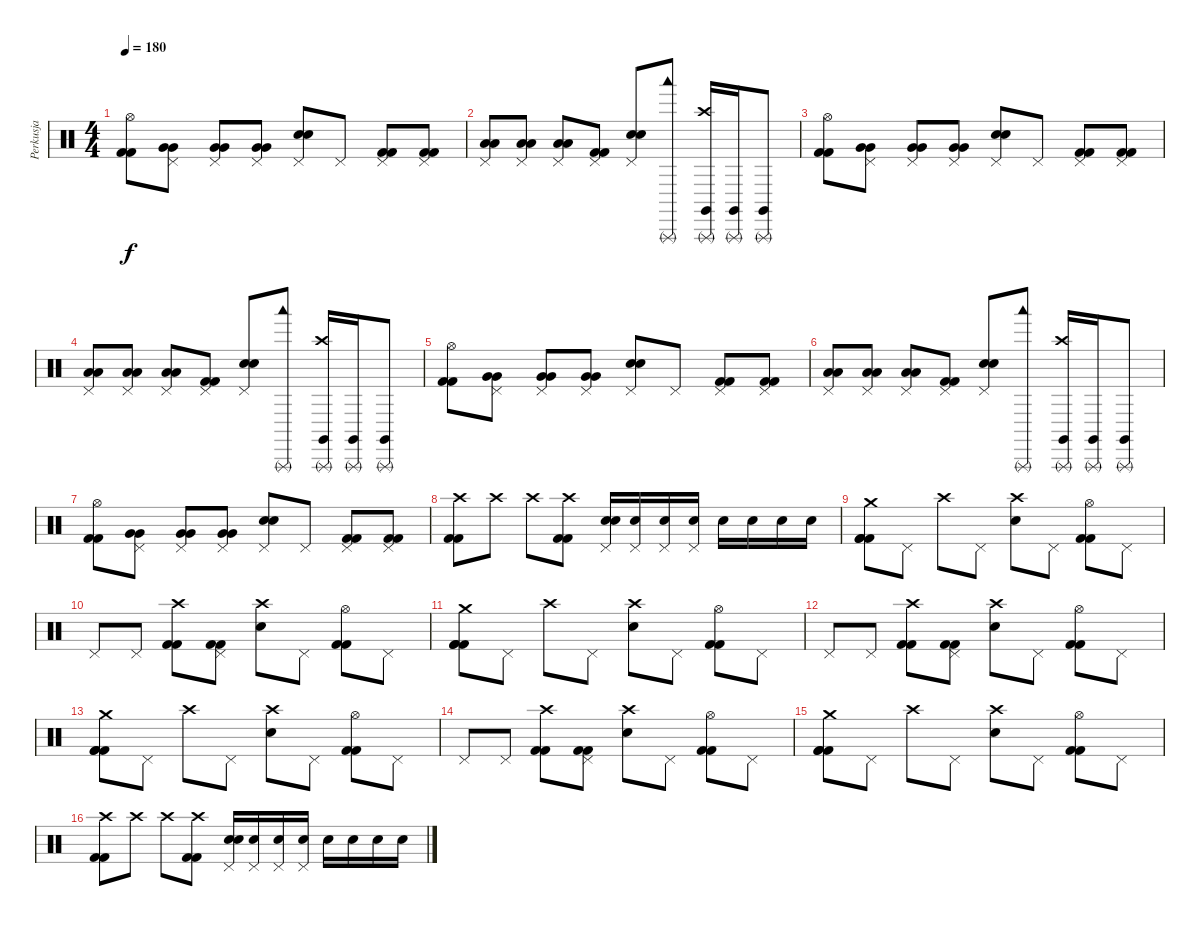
\track ("Perkusja" "Perkusja") {instrument percussion}
\staff {score}
\articulation defaults
\ts (4 4)
\tempo 180
\clef neutral
\ks c
("Hi-Hat (open)" "Kick (hit) 2" "Kick (hit) 2").8{dy f} ("Pedal Hi-Hat (hit)" "Very Low Tom (hit)" "Very Low Tom (hit)").8 ("Pedal Hi-Hat (hit)" "Very Low Tom (hit)" "Very Low Tom (hit)").8 ("Pedal Hi-Hat (hit)" "Very Low Tom (hit)" "Very Low Tom (hit)").8 ("Pedal Hi-Hat (hit)" "Snare (hit) 2" "Snare (hit) 2").8 "Pedal Hi-Hat (hit)".8 ("Pedal Hi-Hat (hit)" "Kick (hit) 2" "Kick (hit) 2").8 ("Pedal Hi-Hat (hit)" "Kick (hit) 2" "Kick (hit) 2").8 |
("Pedal Hi-Hat (hit)" "Low Tom (hit)" "Low Tom (hit)").8 ("Pedal Hi-Hat (hit)" "Low Tom (hit)" "Low Tom (hit)").8 ("Pedal Hi-Hat (hit)" "Low Tom (hit)" "Low Tom (hit)").8 ("Pedal Hi-Hat (hit)" "Kick (hit) 2" "Kick (hit) 2").8 ("Pedal Hi-Hat (hit)" "Snare (hit) 2" "Snare (hit) 2").8 ("Triangle (rnute)" "Woodblock low (hit)").8 ("Crash high (hit)" "Triangle (rnute)" "Claves (hit)").16 ("Triangle (rnute)" "Claves (hit)").16 ("Triangle (rnute)" "Claves (hit)").8 |
("Hi-Hat (open)" "Kick (hit) 2" "Kick (hit) 2").8 ("Pedal Hi-Hat (hit)" "Very Low Tom (hit)" "Very Low Tom (hit)").8 ("Pedal Hi-Hat (hit)" "Very Low Tom (hit)" "Very Low Tom (hit)").8 ("Pedal Hi-Hat (hit)" "Very Low Tom (hit)" "Very Low Tom (hit)").8 ("Pedal Hi-Hat (hit)" "Snare (hit) 2" "Snare (hit) 2").8 "Pedal Hi-Hat (hit)".8 ("Pedal Hi-Hat (hit)" "Kick (hit) 2" "Kick (hit) 2").8 ("Pedal Hi-Hat (hit)" "Kick (hit) 2" "Kick (hit) 2").8 |
("Pedal Hi-Hat (hit)" "Low Tom (hit)" "Low Tom (hit)").8 ("Pedal Hi-Hat (hit)" "Low Tom (hit)" "Low Tom (hit)").8 ("Pedal Hi-Hat (hit)" "Low Tom (hit)" "Low Tom (hit)").8 ("Pedal Hi-Hat (hit)" "Kick (hit) 2" "Kick (hit) 2").8 ("Pedal Hi-Hat (hit)" "Snare (hit) 2" "Snare (hit) 2").8 ("Triangle (rnute)" "Woodblock low (hit)").8 ("Crash high (hit)" "Triangle (rnute)" "Claves (hit)").16 ("Triangle (rnute)" "Claves (hit)").16 ("Triangle (rnute)" "Claves (hit)").8 |
("Hi-Hat (open)" "Kick (hit) 2" "Kick (hit) 2").8 ("Pedal Hi-Hat (hit)" "Very Low Tom (hit)" "Very Low Tom (hit)").8 ("Pedal Hi-Hat (hit)" "Very Low Tom (hit)" "Very Low Tom (hit)").8 ("Pedal Hi-Hat (hit)" "Very Low Tom (hit)" "Very Low Tom (hit)").8 ("Pedal Hi-Hat (hit)" "Snare (hit) 2" "Snare (hit) 2").8 "Pedal Hi-Hat (hit)".8 ("Pedal Hi-Hat (hit)" "Kick (hit) 2" "Kick (hit) 2").8 ("Pedal Hi-Hat (hit)" "Kick (hit) 2" "Kick (hit) 2").8 |
("Pedal Hi-Hat (hit)" "Low Tom (hit)" "Low Tom (hit)").8 ("Pedal Hi-Hat (hit)" "Low Tom (hit)" "Low Tom (hit)").8 ("Pedal Hi-Hat (hit)" "Low Tom (hit)" "Low Tom (hit)").8 ("Pedal Hi-Hat (hit)" "Kick (hit) 2" "Kick (hit) 2").8 ("Pedal Hi-Hat (hit)" "Snare (hit) 2" "Snare (hit) 2").8 ("Triangle (rnute)" "Woodblock low (hit)").8 ("Crash high (hit)" "Triangle (rnute)" "Claves (hit)").16 ("Triangle (rnute)" "Claves (hit)").16 ("Triangle (rnute)" "Claves (hit)").8 |
("Hi-Hat (open)" "Kick (hit) 2" "Kick (hit) 2").8 ("Pedal Hi-Hat (hit)" "Very Low Tom (hit)" "Very Low Tom (hit)").8 ("Pedal Hi-Hat (hit)" "Very Low Tom (hit)" "Very Low Tom (hit)").8 ("Pedal Hi-Hat (hit)" "Very Low Tom (hit)" "Very Low Tom (hit)").8 ("Pedal Hi-Hat (hit)" "Snare (hit) 2" "Snare (hit) 2").8 "Pedal Hi-Hat (hit)".8 ("Pedal Hi-Hat (hit)" "Kick (hit) 2" "Kick (hit) 2").8 ("Pedal Hi-Hat (hit)" "Kick (hit) 2" "Kick (hit) 2").8 |
("Crash high (hit)" "Kick (hit) 2" "Kick (hit) 2").8 "Crash high (hit)".8 "Crash high (hit)".8 ("Crash high (hit)" "Kick (hit) 2" "Kick (hit) 2").8 ("Pedal Hi-Hat (hit)" "Snare (hit) 2" "Snare (hit) 2").16 ("Pedal Hi-Hat (hit)" "Snare (hit) 2").16 ("Pedal Hi-Hat (hit)" "Snare (hit) 2").16 ("Pedal Hi-Hat (hit)" "Snare (hit) 2").16 "Snare (hit) 2".16 "Snare (hit) 2".16 "Snare (hit) 2".16 "Snare (hit) 2".16 |
("Crash medium (hit)" "Kick (hit) 2" "Kick (hit) 2" "Kick (hit) 2").8 "Pedal Hi-Hat (hit)".8 "Crash high (hit)".8 "Pedal Hi-Hat (hit)".8 ("Crash high (hit)" "Snare (hit) 2").8 "Pedal Hi-Hat (hit)".8 ("Hi-Hat (open)" "Kick (hit) 2" "Kick (hit) 2").8 "Pedal Hi-Hat (hit)".8 |
"Pedal Hi-Hat (hit)".8 "Pedal Hi-Hat (hit)".8 ("Crash high (hit)" "Kick (hit) 2" "Kick (hit) 2").8 ("Pedal Hi-Hat (hit)" "Kick (hit) 2" "Kick (hit) 2").8 ("Crash high (hit)" "Snare (hit) 2").8 "Pedal Hi-Hat (hit)".8 ("Hi-Hat (open)" "Kick (hit) 2" "Kick (hit) 2").8 "Pedal Hi-Hat (hit)".8 |
("Crash medium (hit)" "Kick (hit) 2" "Kick (hit) 2" "Kick (hit) 2").8 "Pedal Hi-Hat (hit)".8 "Crash high (hit)".8 "Pedal Hi-Hat (hit)".8 ("Crash high (hit)" "Snare (hit) 2").8 "Pedal Hi-Hat (hit)".8 ("Hi-Hat (open)" "Kick (hit) 2" "Kick (hit) 2").8 "Pedal Hi-Hat (hit)".8 |
"Pedal Hi-Hat (hit)".8 "Pedal Hi-Hat (hit)".8 ("Crash high (hit)" "Kick (hit) 2" "Kick (hit) 2").8 ("Pedal Hi-Hat (hit)" "Kick (hit) 2" "Kick (hit) 2").8 ("Crash high (hit)" "Snare (hit) 2").8 "Pedal Hi-Hat (hit)".8 ("Hi-Hat (open)" "Kick (hit) 2" "Kick (hit) 2").8 "Pedal Hi-Hat (hit)".8 |
("Crash medium (hit)" "Kick (hit) 2" "Kick (hit) 2" "Kick (hit) 2").8 "Pedal Hi-Hat (hit)".8 "Crash high (hit)".8 "Pedal Hi-Hat (hit)".8 ("Crash high (hit)" "Snare (hit) 2").8 "Pedal Hi-Hat (hit)".8 ("Hi-Hat (open)" "Kick (hit) 2" "Kick (hit) 2").8 "Pedal Hi-Hat (hit)".8 |
"Pedal Hi-Hat (hit)".8 "Pedal Hi-Hat (hit)".8 ("Crash high (hit)" "Kick (hit) 2" "Kick (hit) 2").8 ("Pedal Hi-Hat (hit)" "Kick (hit) 2" "Kick (hit) 2").8 ("Crash high (hit)" "Snare (hit) 2").8 "Pedal Hi-Hat (hit)".8 ("Hi-Hat (open)" "Kick (hit) 2" "Kick (hit) 2").8 "Pedal Hi-Hat (hit)".8 |
("Crash medium (hit)" "Kick (hit) 2" "Kick (hit) 2" "Kick (hit) 2").8 "Pedal Hi-Hat (hit)".8 "Crash high (hit)".8 "Pedal Hi-Hat (hit)".8 ("Crash high (hit)" "Snare (hit) 2").8 "Pedal Hi-Hat (hit)".8 ("Hi-Hat (open)" "Kick (hit) 2" "Kick (hit) 2").8 "Pedal Hi-Hat (hit)".8 |
("Crash high (hit)" "Kick (hit) 2" "Kick (hit) 2").8 "Crash high (hit)".8 "Crash high (hit)".8 ("Crash high (hit)" "Kick (hit) 2" "Kick (hit) 2").8 ("Pedal Hi-Hat (hit)" "Snare (hit) 2" "Snare (hit) 2").16 ("Pedal Hi-Hat (hit)" "Snare (hit) 2").16 ("Pedal Hi-Hat (hit)" "Snare (hit) 2").16 ("Pedal Hi-Hat (hit)" "Snare (hit) 2").16 "Snare (hit) 2".16 "Snare (hit) 2".16 "Snare (hit) 2".16 "Snare (hit) 2".16
